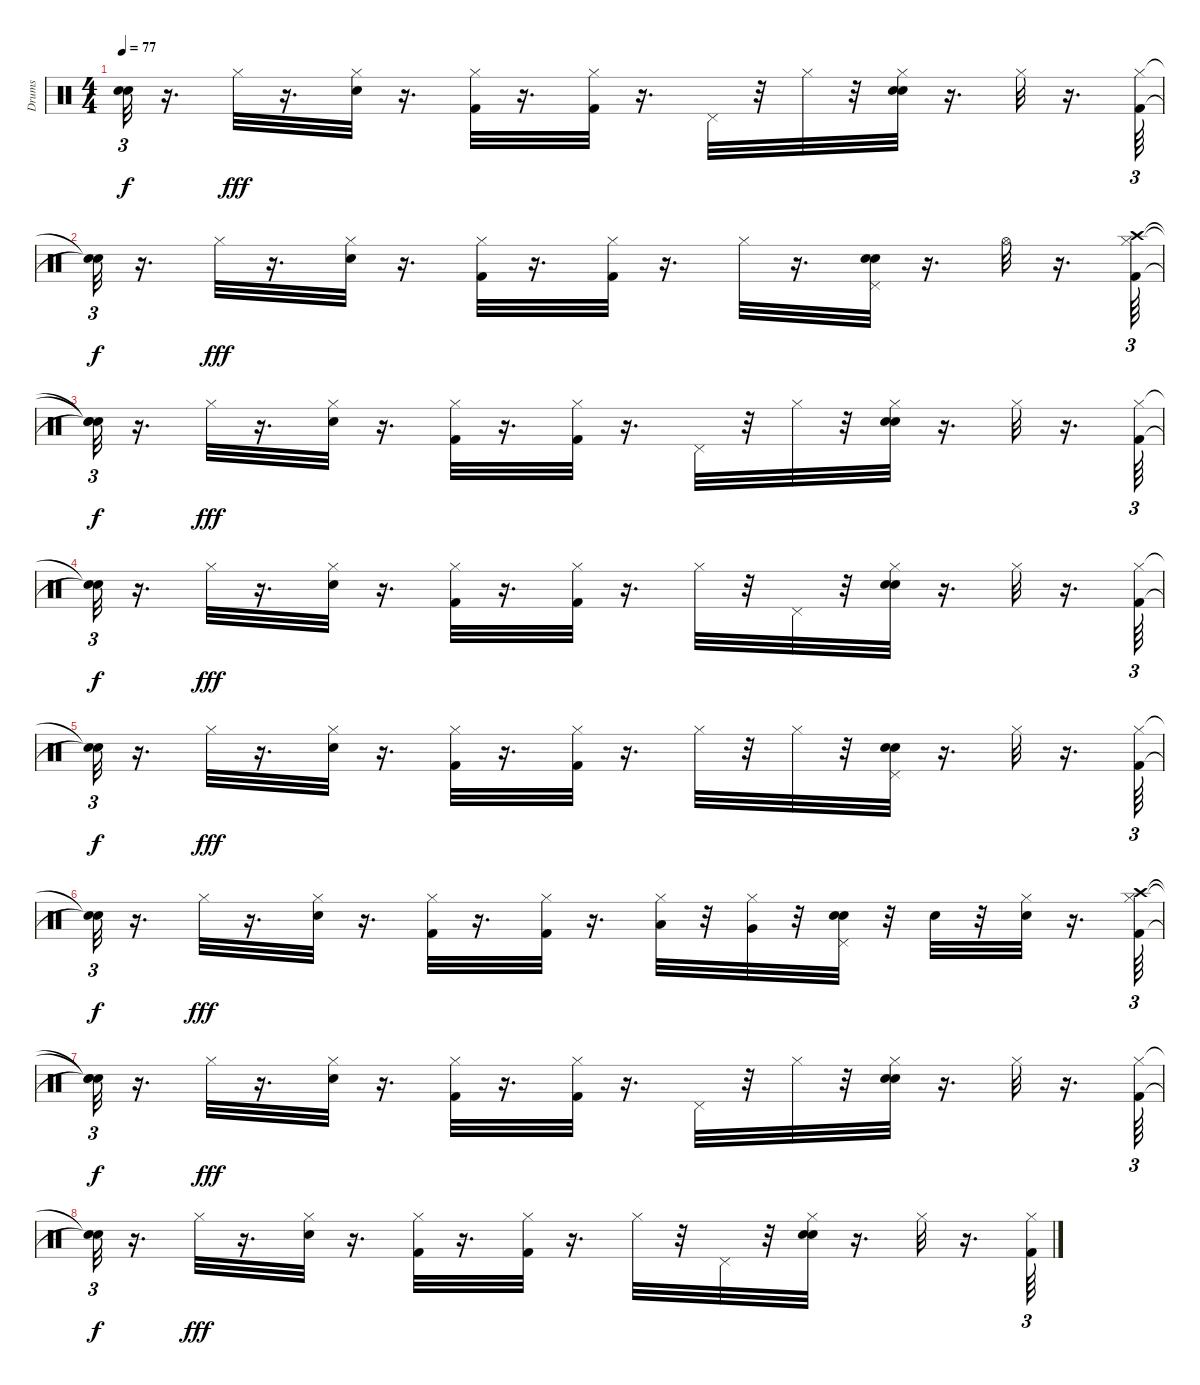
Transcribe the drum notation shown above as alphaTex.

\track ("Drums   " "Drums   ") {instrument percussion}
\staff {score}
\articulation defaults
\ts (4 4)
\tempo 77
\clef neutral
\ks c
("Snare (hit)"{t} "Snare (hit)"{t}).32{tu (3 2) dy f} r.16{d} "Hi-Hat (closed)".32{dy fff} r.16{d} ("Snare (hit) 2" "Hi-Hat (closed)").32 r.16{d} ("Kick (hit) 2" "Hi-Hat (closed)").32 r.16{d} ("Kick (hit) 2" "Hi-Hat (closed)").32 r.16{d} "Pedal Hi-Hat (hit)".32 r.32 "Hi-Hat (closed)".32 r.32 ("Snare (hit) 2" "Hand Clap (hit)" "Hi-Hat (closed)").32 r.16{d} "Hi-Hat (closed)".32 r.16{d} ("Kick (hit) 2" "Hi-Hat (closed)").64{tu (3 2)} |
("Snare (hit)"{t} "Snare (hit)"{t}).32{tu (3 2) dy f} r.16{d} "Hi-Hat (closed)".32{dy fff} r.16{d} ("Snare (hit) 2" "Hi-Hat (closed)").32 r.16{d} ("Kick (hit) 2" "Hi-Hat (closed)").32 r.16{d} ("Kick (hit) 2" "Hi-Hat (closed)").32 r.16{d} "Hi-Hat (closed)".32 r.16{d} ("Snare (hit) 2" "Hand Clap (hit)" "Pedal Hi-Hat (hit)").32 r.16{d} "Hi-Hat (open)".32 r.16{d} ("Kick (hit) 2" "Hi-Hat (closed)" "Crash high (hit)").64{tu (3 2)} |
("Snare (hit)"{t} "Snare (hit)"{t} "Snare (hit)"{t}).32{tu (3 2) dy f} r.16{d} "Hi-Hat (closed)".32{dy fff} r.16{d} ("Snare (hit) 2" "Hi-Hat (closed)").32 r.16{d} ("Kick (hit) 2" "Hi-Hat (closed)").32 r.16{d} ("Kick (hit) 2" "Hi-Hat (closed)").32 r.16{d} "Pedal Hi-Hat (hit)".32 r.32 "Hi-Hat (closed)".32 r.32 ("Snare (hit) 2" "Hand Clap (hit)" "Hi-Hat (closed)").32 r.16{d} "Hi-Hat (closed)".32 r.16{d} ("Kick (hit) 2" "Hi-Hat (closed)").64{tu (3 2)} |
("Snare (hit)"{t} "Snare (hit)"{t}).32{tu (3 2) dy f} r.16{d} "Hi-Hat (closed)".32{dy fff} r.16{d} ("Snare (hit) 2" "Hi-Hat (closed)").32 r.16{d} ("Kick (hit) 2" "Hi-Hat (closed)").32 r.16{d} ("Kick (hit) 2" "Hi-Hat (closed)").32 r.16{d} "Hi-Hat (closed)".32 r.32 "Pedal Hi-Hat (hit)".32 r.32 ("Snare (hit) 2" "Hand Clap (hit)" "Hi-Hat (closed)").32 r.16{d} "Hi-Hat (closed)".32 r.16{d} ("Kick (hit) 2" "Hi-Hat (closed)").64{tu (3 2)} |
("Snare (hit)"{t} "Snare (hit)"{t}).32{tu (3 2) dy f} r.16{d} "Hi-Hat (closed)".32{dy fff} r.16{d} ("Snare (hit) 2" "Hi-Hat (closed)").32 r.16{d} ("Kick (hit) 2" "Hi-Hat (closed)").32 r.16{d} ("Kick (hit) 2" "Hi-Hat (closed)").32 r.16{d} "Hi-Hat (closed)".32 r.32 "Hi-Hat (closed)".32 r.32 ("Snare (hit) 2" "Hand Clap (hit)" "Pedal Hi-Hat (hit)").32 r.16{d} "Hi-Hat (closed)".32 r.16{d} ("Kick (hit) 2" "Hi-Hat (closed)").64{tu (3 2)} |
("Snare (hit)"{t} "Snare (hit)"{t}).32{tu (3 2) dy f} r.16{d} "Hi-Hat (closed)".32{dy fff} r.16{d} ("Snare (hit) 2" "Hi-Hat (closed)").32 r.16{d} ("Kick (hit) 2" "Hi-Hat (closed)").32 r.16{d} ("Kick (hit) 2" "Hi-Hat (closed)").32 r.16{d} ("Hi-Hat (closed)" "Low Tom (hit)").32 r.32 ("Hi-Hat (closed)" "Very Low Tom (hit)").32 r.32 ("Snare (hit) 2" "Hand Clap (hit)" "Pedal Hi-Hat (hit)").32 r.32 "Electric Snare (hit)".32 r.32 ("Snare (hit) 2" "Hi-Hat (closed)").32 r.16{d} ("Kick (hit) 2" "Hi-Hat (closed)" "Crash high (hit)").64{tu (3 2)} |
("Snare (hit)"{t} "Snare (hit)"{t} "Snare (hit)"{t}).32{tu (3 2) dy f} r.16{d} "Hi-Hat (closed)".32{dy fff} r.16{d} ("Snare (hit) 2" "Hi-Hat (closed)").32 r.16{d} ("Kick (hit) 2" "Hi-Hat (closed)").32 r.16{d} ("Kick (hit) 2" "Hi-Hat (closed)").32 r.16{d} "Pedal Hi-Hat (hit)".32 r.32 "Hi-Hat (closed)".32 r.32 ("Snare (hit) 2" "Hand Clap (hit)" "Hi-Hat (closed)").32 r.16{d} "Hi-Hat (closed)".32 r.16{d} ("Kick (hit) 2" "Hi-Hat (closed)").64{tu (3 2)} |
("Snare (hit)"{t} "Snare (hit)"{t}).32{tu (3 2) dy f} r.16{d} "Hi-Hat (closed)".32{dy fff} r.16{d} ("Snare (hit) 2" "Hi-Hat (closed)").32 r.16{d} ("Kick (hit) 2" "Hi-Hat (closed)").32 r.16{d} ("Kick (hit) 2" "Hi-Hat (closed)").32 r.16{d} "Hi-Hat (closed)".32 r.32 "Pedal Hi-Hat (hit)".32 r.32 ("Snare (hit) 2" "Hand Clap (hit)" "Hi-Hat (closed)").32 r.16{d} "Hi-Hat (closed)".32 r.16{d} ("Kick (hit) 2" "Hi-Hat (closed)").64{tu (3 2)}
